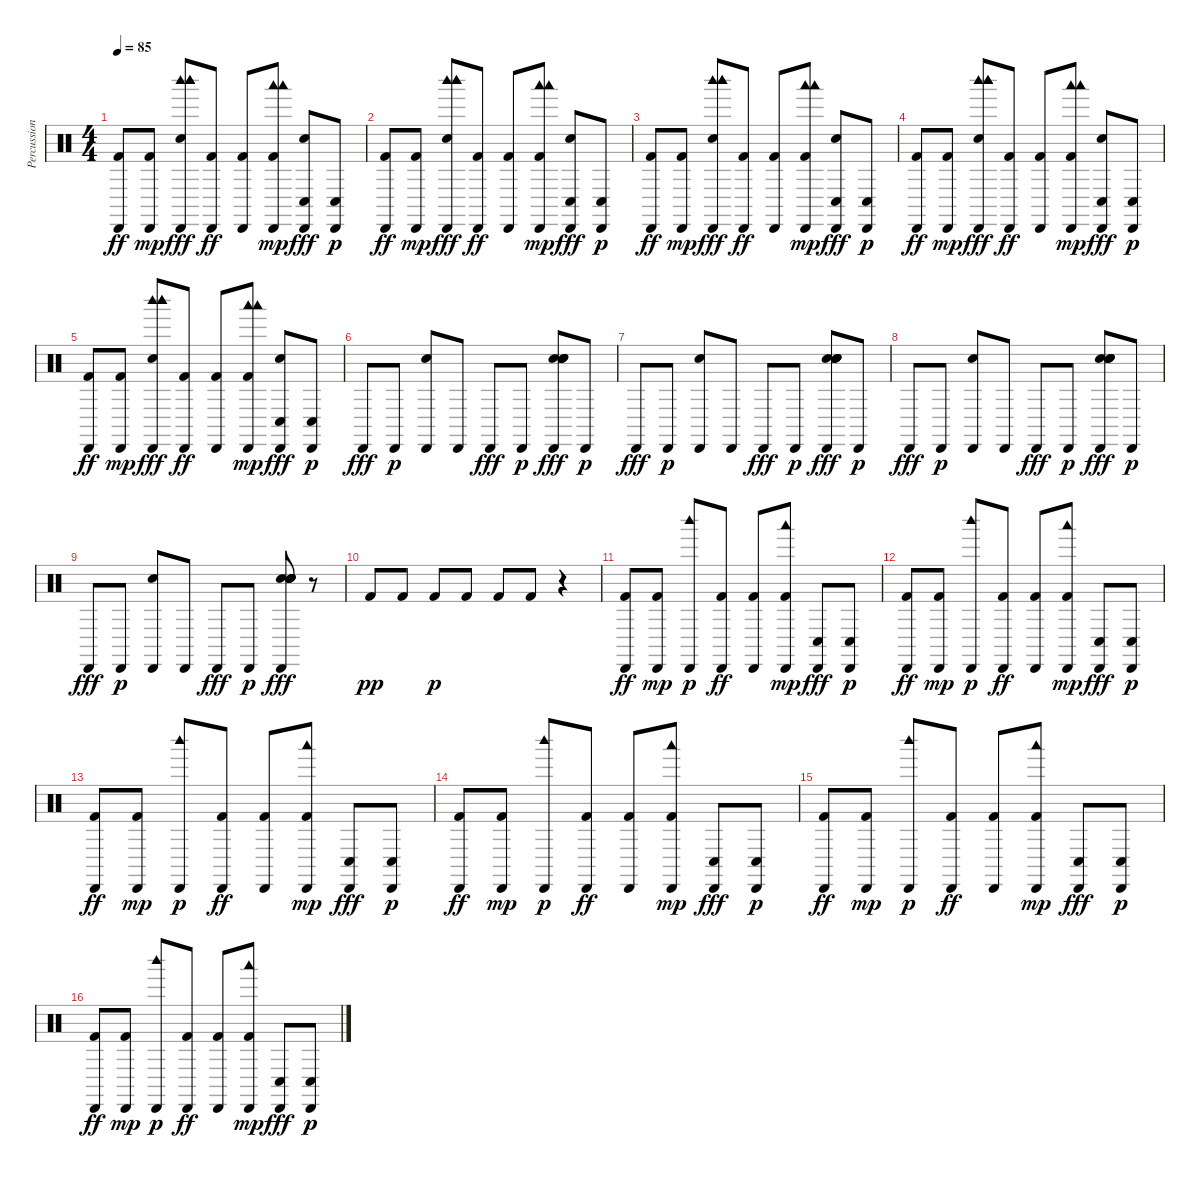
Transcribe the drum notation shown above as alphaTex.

\track ("Percussion" "Percussion") {instrument percussion}
\staff {score}
\articulation defaults
\ts (4 4)
\tempo 85
\clef neutral
\ks c
("Cabasa (hit)" "Kick (hit) 2").8{dy ff} ("Cabasa (hit)" "Kick (hit) 2").8{dy mp} ("Woodblock high (hit)" "Woodblock high (hit)" "Hand Clap (hit)" "Cabasa (hit)" "Woodblock high (hit)" "Woodblock high (hit)").8{dy fff} ("Cabasa (hit)" "Kick (hit) 2").8{dy ff} ("Cabasa (hit)" "Kick (hit) 2").8 ("Woodblock low (hit)" "Cabasa (hit)" "Woodblock low (hit)" "Kick (hit) 2").8{dy mp} ("Conga low (hit)" "Hand Clap (hit)" "Cabasa (hit)").8{dy fff} ("Conga low (hit)" "Cabasa (hit)").8{dy p} |
("Cabasa (hit)" "Kick (hit) 2").8{dy ff} ("Cabasa (hit)" "Kick (hit) 2").8{dy mp} ("Woodblock high (hit)" "Woodblock high (hit)" "Hand Clap (hit)" "Cabasa (hit)" "Woodblock high (hit)" "Woodblock high (hit)").8{dy fff} ("Cabasa (hit)" "Kick (hit) 2").8{dy ff} ("Cabasa (hit)" "Kick (hit) 2").8 ("Woodblock low (hit)" "Cabasa (hit)" "Woodblock low (hit)" "Kick (hit) 2").8{dy mp} ("Conga low (hit)" "Hand Clap (hit)" "Cabasa (hit)").8{dy fff} ("Conga low (hit)" "Cabasa (hit)").8{dy p} |
("Cabasa (hit)" "Kick (hit) 2").8{dy ff} ("Cabasa (hit)" "Kick (hit) 2").8{dy mp} ("Woodblock high (hit)" "Woodblock high (hit)" "Hand Clap (hit)" "Cabasa (hit)" "Woodblock high (hit)" "Woodblock high (hit)").8{dy fff} ("Cabasa (hit)" "Kick (hit) 2").8{dy ff} ("Cabasa (hit)" "Kick (hit) 2").8 ("Woodblock low (hit)" "Cabasa (hit)" "Woodblock low (hit)" "Kick (hit) 2").8{dy mp} ("Conga low (hit)" "Hand Clap (hit)" "Cabasa (hit)").8{dy fff} ("Conga low (hit)" "Cabasa (hit)").8{dy p} |
("Cabasa (hit)" "Kick (hit) 2").8{dy ff} ("Cabasa (hit)" "Kick (hit) 2").8{dy mp} ("Woodblock high (hit)" "Woodblock high (hit)" "Hand Clap (hit)" "Cabasa (hit)" "Woodblock high (hit)" "Woodblock high (hit)").8{dy fff} ("Cabasa (hit)" "Kick (hit) 2").8{dy ff} ("Cabasa (hit)" "Kick (hit) 2").8 ("Woodblock low (hit)" "Cabasa (hit)" "Woodblock low (hit)" "Kick (hit) 2").8{dy mp} ("Conga low (hit)" "Hand Clap (hit)" "Cabasa (hit)").8{dy fff} ("Conga low (hit)" "Cabasa (hit)").8{dy p} |
("Cabasa (hit)" "Kick (hit) 2").8{dy ff} ("Cabasa (hit)" "Kick (hit) 2").8{dy mp} ("Woodblock high (hit)" "Woodblock high (hit)" "Hand Clap (hit)" "Cabasa (hit)" "Woodblock high (hit)" "Woodblock high (hit)").8{dy fff} ("Cabasa (hit)" "Kick (hit) 2").8{dy ff} ("Cabasa (hit)" "Kick (hit) 2").8 ("Woodblock low (hit)" "Cabasa (hit)" "Woodblock low (hit)" "Kick (hit) 2").8{dy mp} ("Conga low (hit)" "Hand Clap (hit)" "Cabasa (hit)").8{dy fff} ("Conga low (hit)" "Cabasa (hit)").8{dy p} |
"Cabasa (hit)".8{dy fff} "Cabasa (hit)".8{dy p} ("Hand Clap (hit)" "Cabasa (hit)").8 "Cabasa (hit)".8 "Cabasa (hit)".8{dy fff} "Cabasa (hit)".8{dy p} ("Hand Clap (hit)" "Hand Clap (hit)" "Hand Clap (hit)" "Cabasa (hit)" "Hand Clap (hit)").8{dy fff} "Cabasa (hit)".8{dy p} |
"Cabasa (hit)".8{dy fff} "Cabasa (hit)".8{dy p} ("Hand Clap (hit)" "Cabasa (hit)").8 "Cabasa (hit)".8 "Cabasa (hit)".8{dy fff} "Cabasa (hit)".8{dy p} ("Hand Clap (hit)" "Hand Clap (hit)" "Hand Clap (hit)" "Cabasa (hit)" "Hand Clap (hit)").8{dy fff} "Cabasa (hit)".8{dy p} |
"Cabasa (hit)".8{dy fff} "Cabasa (hit)".8{dy p} ("Hand Clap (hit)" "Cabasa (hit)").8 "Cabasa (hit)".8 "Cabasa (hit)".8{dy fff} "Cabasa (hit)".8{dy p} ("Hand Clap (hit)" "Hand Clap (hit)" "Hand Clap (hit)" "Cabasa (hit)" "Hand Clap (hit)").8{dy fff} "Cabasa (hit)".8{dy p} |
"Cabasa (hit)".8{dy fff} "Cabasa (hit)".8{dy p} ("Hand Clap (hit)" "Cabasa (hit)").8 "Cabasa (hit)".8 "Cabasa (hit)".8{dy fff} "Cabasa (hit)".8{dy p} ("Hand Clap (hit)" "Hand Clap (hit)" "Hand Clap (hit)" "Cabasa (hit)" "Hand Clap (hit)").8{dy fff} r.8 |
"Kick (hit) 2".8{dy pp} "Kick (hit) 2".8 "Kick (hit) 2".8{dy p} "Kick (hit) 2".8 "Kick (hit) 2".8 "Kick (hit) 2".8 r.4 |
("Cabasa (hit)" "Kick (hit) 2").8{dy ff} ("Cabasa (hit)" "Kick (hit) 2").8{dy mp} ("Woodblock high (hit)" "Cabasa (hit)").8{dy p} ("Cabasa (hit)" "Kick (hit) 2").8{dy ff} ("Cabasa (hit)" "Kick (hit) 2").8 ("Woodblock low (hit)" "Cabasa (hit)" "Kick (hit) 2").8{dy mp} ("Conga low (hit)" "Cabasa (hit)").8{dy fff} ("Conga low (hit)" "Cabasa (hit)").8{dy p} |
("Cabasa (hit)" "Kick (hit) 2").8{dy ff} ("Cabasa (hit)" "Kick (hit) 2").8{dy mp} ("Woodblock high (hit)" "Cabasa (hit)").8{dy p} ("Cabasa (hit)" "Kick (hit) 2").8{dy ff} ("Cabasa (hit)" "Kick (hit) 2").8 ("Woodblock low (hit)" "Cabasa (hit)" "Kick (hit) 2").8{dy mp} ("Conga low (hit)" "Cabasa (hit)").8{dy fff} ("Conga low (hit)" "Cabasa (hit)").8{dy p} |
("Cabasa (hit)" "Kick (hit) 2").8{dy ff} ("Cabasa (hit)" "Kick (hit) 2").8{dy mp} ("Woodblock high (hit)" "Cabasa (hit)").8{dy p} ("Cabasa (hit)" "Kick (hit) 2").8{dy ff} ("Cabasa (hit)" "Kick (hit) 2").8 ("Woodblock low (hit)" "Cabasa (hit)" "Kick (hit) 2").8{dy mp} ("Conga low (hit)" "Cabasa (hit)").8{dy fff} ("Conga low (hit)" "Cabasa (hit)").8{dy p} |
("Cabasa (hit)" "Kick (hit) 2").8{dy ff} ("Cabasa (hit)" "Kick (hit) 2").8{dy mp} ("Woodblock high (hit)" "Cabasa (hit)").8{dy p} ("Cabasa (hit)" "Kick (hit) 2").8{dy ff} ("Cabasa (hit)" "Kick (hit) 2").8 ("Woodblock low (hit)" "Cabasa (hit)" "Kick (hit) 2").8{dy mp} ("Conga low (hit)" "Cabasa (hit)").8{dy fff} ("Conga low (hit)" "Cabasa (hit)").8{dy p} |
("Cabasa (hit)" "Kick (hit) 2").8{dy ff} ("Cabasa (hit)" "Kick (hit) 2").8{dy mp} ("Woodblock high (hit)" "Cabasa (hit)").8{dy p} ("Cabasa (hit)" "Kick (hit) 2").8{dy ff} ("Cabasa (hit)" "Kick (hit) 2").8 ("Woodblock low (hit)" "Cabasa (hit)" "Kick (hit) 2").8{dy mp} ("Conga low (hit)" "Cabasa (hit)").8{dy fff} ("Conga low (hit)" "Cabasa (hit)").8{dy p} |
("Cabasa (hit)" "Kick (hit) 2").8{dy ff} ("Cabasa (hit)" "Kick (hit) 2").8{dy mp} ("Woodblock high (hit)" "Cabasa (hit)").8{dy p} ("Cabasa (hit)" "Kick (hit) 2").8{dy ff} ("Cabasa (hit)" "Kick (hit) 2").8 ("Woodblock low (hit)" "Cabasa (hit)" "Kick (hit) 2").8{dy mp} ("Conga low (hit)" "Cabasa (hit)").8{dy fff} ("Conga low (hit)" "Cabasa (hit)").8{dy p}
